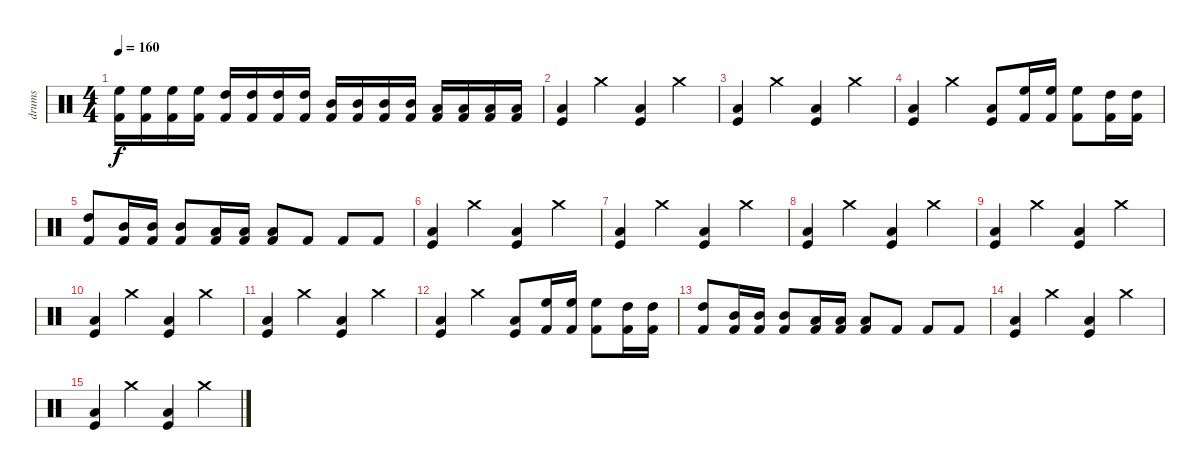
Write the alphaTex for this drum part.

\track ("drums" "drums") {instrument percussion}
\staff {score}
\articulation defaults
\ts (4 4)
\tempo 160
\clef neutral
\ks c
("High Floor Tom (hit)" "Kick (hit) 2").16{dy f} ("High Floor Tom (hit)" "Kick (hit) 2").16 ("High Floor Tom (hit)" "Kick (hit) 2").16 ("High Floor Tom (hit)" "Kick (hit) 2").16 ("High Tom (hit)" "Kick (hit) 2").16 ("High Tom (hit)" "Kick (hit) 2").16 ("High Tom (hit)" "Kick (hit) 2").16 ("High Tom (hit)" "Kick (hit) 2").16 ("Mid Tom (hit)" "Kick (hit) 2").16 ("Mid Tom (hit)" "Kick (hit) 2").16 ("Mid Tom (hit)" "Kick (hit) 2").16 ("Mid Tom (hit)" "Kick (hit) 2").16 ("Low Tom (hit)" "Kick (hit) 2").16 ("Low Tom (hit)" "Kick (hit) 2").16 ("Low Tom (hit)" "Kick (hit) 2").16 ("Low Tom (hit)" "Kick (hit) 2").16 |
("Kick (hit)" "Low Tom (hit)").4 "Crash medium (hit)".4 ("Kick (hit)" "Low Tom (hit)").4 "Crash medium (hit)".4 |
("Kick (hit)" "Low Tom (hit)").4 "Crash medium (hit)".4 ("Kick (hit)" "Low Tom (hit)").4 "Crash medium (hit)".4 |
("Kick (hit)" "Low Tom (hit)").4 "Crash medium (hit)".4 ("Kick (hit)" "Low Tom (hit)").8 ("High Floor Tom (hit)" "Kick (hit) 2").16 ("High Floor Tom (hit)" "Kick (hit) 2").16 ("High Floor Tom (hit)" "Kick (hit) 2").8 ("High Tom (hit)" "Kick (hit) 2").16 ("High Tom (hit)" "Kick (hit) 2").16 |
("High Tom (hit)" "Kick (hit) 2").8 ("Mid Tom (hit)" "Kick (hit) 2").16 ("Mid Tom (hit)" "Kick (hit) 2").16 ("Mid Tom (hit)" "Kick (hit) 2").8 ("Low Tom (hit)" "Kick (hit) 2").16 ("Low Tom (hit)" "Kick (hit) 2").16 ("Low Tom (hit)" "Kick (hit) 2").8 "Kick (hit) 2".8 "Kick (hit) 2".8 "Kick (hit) 2".8 |
("Kick (hit)" "Low Tom (hit)").4 "Crash medium (hit)".4 ("Kick (hit)" "Low Tom (hit)").4 "Crash medium (hit)".4 |
("Kick (hit)" "Low Tom (hit)").4 "Crash medium (hit)".4 ("Kick (hit)" "Low Tom (hit)").4 "Crash medium (hit)".4 |
("Kick (hit)" "Low Tom (hit)").4 "Crash medium (hit)".4 ("Kick (hit)" "Low Tom (hit)").4 "Crash medium (hit)".4 |
("Kick (hit)" "Low Tom (hit)").4 "Crash medium (hit)".4 ("Kick (hit)" "Low Tom (hit)").4 "Crash medium (hit)".4 |
("Kick (hit)" "Low Tom (hit)").4 "Crash medium (hit)".4 ("Kick (hit)" "Low Tom (hit)").4 "Crash medium (hit)".4 |
("Kick (hit)" "Low Tom (hit)").4 "Crash medium (hit)".4 ("Kick (hit)" "Low Tom (hit)").4 "Crash medium (hit)".4 |
("Kick (hit)" "Low Tom (hit)").4 "Crash medium (hit)".4 ("Kick (hit)" "Low Tom (hit)").8 ("High Floor Tom (hit)" "Kick (hit) 2").16 ("High Floor Tom (hit)" "Kick (hit) 2").16 ("High Floor Tom (hit)" "Kick (hit) 2").8 ("High Tom (hit)" "Kick (hit) 2").16 ("High Tom (hit)" "Kick (hit) 2").16 |
("High Tom (hit)" "Kick (hit) 2").8 ("Mid Tom (hit)" "Kick (hit) 2").16 ("Mid Tom (hit)" "Kick (hit) 2").16 ("Mid Tom (hit)" "Kick (hit) 2").8 ("Low Tom (hit)" "Kick (hit) 2").16 ("Low Tom (hit)" "Kick (hit) 2").16 ("Low Tom (hit)" "Kick (hit) 2").8 "Kick (hit) 2".8 "Kick (hit) 2".8 "Kick (hit) 2".8 |
("Kick (hit)" "Low Tom (hit)").4 "Crash medium (hit)".4 ("Kick (hit)" "Low Tom (hit)").4 "Crash medium (hit)".4 |
("Kick (hit)" "Low Tom (hit)").4 "Crash medium (hit)".4 ("Kick (hit)" "Low Tom (hit)").4 "Crash medium (hit)".4
